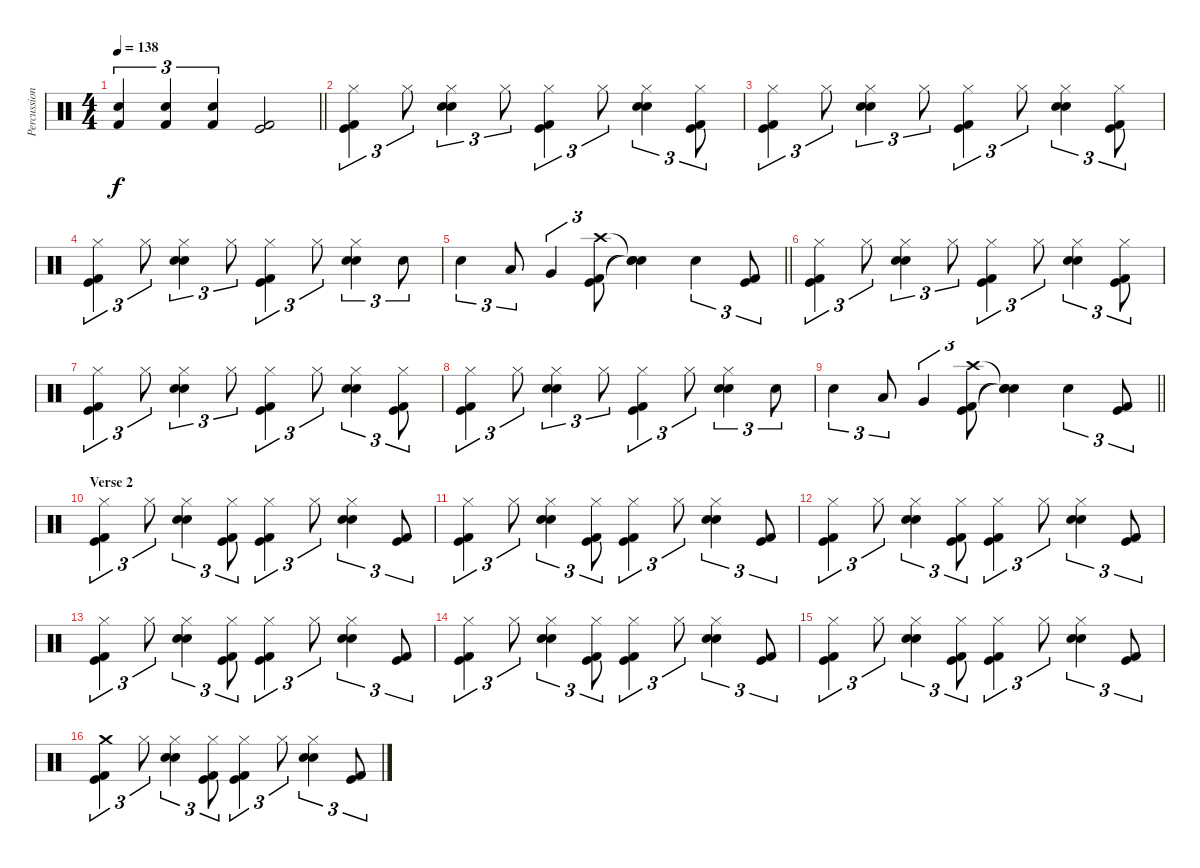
\track ("Percussion" "Percussion") {instrument percussion}
\staff {score}
\articulation defaults
\ts (4 4)
\tempo 138
\clef neutral
\barLineRight lightlight
\ks c
("Electric Snare (hit)" "Kick (hit) 2").4{tu (3 2) dy f} ("Electric Snare (hit)" "Kick (hit) 2").4{tu (3 2)} ("Electric Snare (hit)" "Kick (hit) 2").4{tu (3 2)} ("Kick (hit)" "Kick (hit) 2").2 |
\section ("" "")
("Hi-Hat (closed)" "Kick (hit)" "Kick (hit) 2").4{tu (3 2)} "Hi-Hat (closed)".8{tu (3 2)} ("Hi-Hat (closed)" "Hand Clap (hit)" "Electric Snare (hit)").4{tu (3 2)} "Hi-Hat (closed)".8{tu (3 2)} ("Hi-Hat (closed)" "Kick (hit)" "Kick (hit) 2").4{tu (3 2)} "Hi-Hat (closed)".8{tu (3 2)} ("Hi-Hat (closed)" "Hand Clap (hit)" "Electric Snare (hit)").4{tu (3 2)} ("Hi-Hat (closed)" "Kick (hit)" "Kick (hit) 2").8{tu (3 2)} |
("Hi-Hat (closed)" "Kick (hit)" "Kick (hit) 2").4{tu (3 2)} "Hi-Hat (closed)".8{tu (3 2)} ("Hi-Hat (closed)" "Hand Clap (hit)" "Electric Snare (hit)").4{tu (3 2)} "Hi-Hat (closed)".8{tu (3 2)} ("Hi-Hat (closed)" "Kick (hit)" "Kick (hit) 2").4{tu (3 2)} "Hi-Hat (closed)".8{tu (3 2)} ("Hi-Hat (closed)" "Hand Clap (hit)" "Electric Snare (hit)").4{tu (3 2)} ("Hi-Hat (closed)" "Kick (hit)" "Kick (hit) 2").8{tu (3 2)} |
("Hi-Hat (closed)" "Kick (hit)" "Kick (hit) 2").4{tu (3 2)} "Hi-Hat (closed)".8{tu (3 2)} ("Hi-Hat (closed)" "Hand Clap (hit)" "Electric Snare (hit)").4{tu (3 2)} "Hi-Hat (closed)".8{tu (3 2)} ("Hi-Hat (closed)" "Kick (hit)" "Kick (hit) 2").4{tu (3 2)} "Hi-Hat (closed)".8{tu (3 2)} ("Hi-Hat (closed)" "Hand Clap (hit)" "Electric Snare (hit)").4{tu (3 2)} "Electric Snare (hit)".8{tu (3 2)} |
\barLineRight lightlight "Electric Snare (hit)".4{tu (3 2)} "Low Tom (hit)".8{tu (3 2)} "Very Low Tom (hit)".4{tu (3 2)}
("Crash high (hit)" "Kick (hit)" "Kick (hit) 2").8{tu (3 2)} ("Snare (hit)"{t} "Snare (hit)"{t} "Snare (hit)"{t}).4 "Hand Clap (hit)".4{tu (3 2)} ("Kick (hit)" "Kick (hit) 2").8{tu (3 2)} |
\section ("" "")
("Hi-Hat (closed)" "Kick (hit)" "Kick (hit) 2").4{tu (3 2)} "Hi-Hat (closed)".8{tu (3 2)} ("Hi-Hat (closed)" "Hand Clap (hit)" "Electric Snare (hit)").4{tu (3 2)} "Hi-Hat (closed)".8{tu (3 2)} ("Hi-Hat (closed)" "Kick (hit)" "Kick (hit) 2").4{tu (3 2)} "Hi-Hat (closed)".8{tu (3 2)} ("Hi-Hat (closed)" "Hand Clap (hit)" "Electric Snare (hit)").4{tu (3 2)} ("Hi-Hat (closed)" "Kick (hit)" "Kick (hit) 2").8{tu (3 2)} |
("Hi-Hat (closed)" "Kick (hit)" "Kick (hit) 2").4{tu (3 2)} "Hi-Hat (closed)".8{tu (3 2)} ("Hi-Hat (closed)" "Hand Clap (hit)" "Electric Snare (hit)").4{tu (3 2)} "Hi-Hat (closed)".8{tu (3 2)} ("Hi-Hat (closed)" "Kick (hit)" "Kick (hit) 2").4{tu (3 2)} "Hi-Hat (closed)".8{tu (3 2)} ("Hi-Hat (closed)" "Hand Clap (hit)" "Electric Snare (hit)").4{tu (3 2)} ("Hi-Hat (closed)" "Kick (hit)" "Kick (hit) 2").8{tu (3 2)} |
("Hi-Hat (closed)" "Kick (hit)" "Kick (hit) 2").4{tu (3 2)} "Hi-Hat (closed)".8{tu (3 2)} ("Hi-Hat (closed)" "Hand Clap (hit)" "Electric Snare (hit)").4{tu (3 2)} "Hi-Hat (closed)".8{tu (3 2)} ("Hi-Hat (closed)" "Kick (hit)" "Kick (hit) 2").4{tu (3 2)} "Hi-Hat (closed)".8{tu (3 2)} ("Hi-Hat (closed)" "Hand Clap (hit)" "Electric Snare (hit)").4{tu (3 2)} "Electric Snare (hit)".8{tu (3 2)} |
\barLineRight lightlight "Electric Snare (hit)".4{tu (3 2)} "Low Tom (hit)".8{tu (3 2)} "Very Low Tom (hit)".4{tu (3 2)}
("Crash high (hit)" "Kick (hit)" "Kick (hit) 2").8{tu (3 2)} ("Snare (hit)"{t} "Snare (hit)"{t} "Snare (hit)"{t}).4 "Hand Clap (hit)".4{tu (3 2)} ("Kick (hit)" "Kick (hit) 2").8{tu (3 2)} |
\section ("" "Verse 2")
("Hi-Hat (closed)" "Kick (hit)" "Kick (hit) 2").4{tu (3 2)} "Hi-Hat (closed)".8{tu (3 2)} ("Hi-Hat (closed)" "Hand Clap (hit)" "Electric Snare (hit)").4{tu (3 2)} ("Hi-Hat (closed)" "Kick (hit)" "Kick (hit) 2").8{tu (3 2)} ("Hi-Hat (closed)" "Kick (hit)" "Kick (hit) 2").4{tu (3 2)} "Hi-Hat (closed)".8{tu (3 2)} ("Hi-Hat (closed)" "Hand Clap (hit)" "Electric Snare (hit)").4{tu (3 2)} ("Kick (hit)" "Kick (hit) 2").8{tu (3 2)} |
("Hi-Hat (closed)" "Kick (hit)" "Kick (hit) 2").4{tu (3 2)} "Hi-Hat (closed)".8{tu (3 2)} ("Hi-Hat (closed)" "Hand Clap (hit)" "Electric Snare (hit)").4{tu (3 2)} ("Hi-Hat (closed)" "Kick (hit)" "Kick (hit) 2").8{tu (3 2)} ("Hi-Hat (closed)" "Kick (hit)" "Kick (hit) 2").4{tu (3 2)} "Hi-Hat (closed)".8{tu (3 2)} ("Hi-Hat (closed)" "Hand Clap (hit)" "Electric Snare (hit)").4{tu (3 2)} ("Kick (hit)" "Kick (hit) 2").8{tu (3 2)} |
("Hi-Hat (closed)" "Kick (hit)" "Kick (hit) 2").4{tu (3 2)} "Hi-Hat (closed)".8{tu (3 2)} ("Hi-Hat (closed)" "Hand Clap (hit)" "Electric Snare (hit)").4{tu (3 2)} ("Hi-Hat (closed)" "Kick (hit)" "Kick (hit) 2").8{tu (3 2)} ("Hi-Hat (closed)" "Kick (hit)" "Kick (hit) 2").4{tu (3 2)} "Hi-Hat (closed)".8{tu (3 2)} ("Hi-Hat (closed)" "Hand Clap (hit)" "Electric Snare (hit)").4{tu (3 2)} ("Kick (hit)" "Kick (hit) 2").8{tu (3 2)} |
("Hi-Hat (closed)" "Kick (hit)" "Kick (hit) 2").4{tu (3 2)} "Hi-Hat (closed)".8{tu (3 2)} ("Hi-Hat (closed)" "Hand Clap (hit)" "Electric Snare (hit)").4{tu (3 2)} ("Hi-Hat (closed)" "Kick (hit)" "Kick (hit) 2").8{tu (3 2)} ("Hi-Hat (closed)" "Kick (hit)" "Kick (hit) 2").4{tu (3 2)} "Hi-Hat (closed)".8{tu (3 2)} ("Hi-Hat (closed)" "Hand Clap (hit)" "Electric Snare (hit)").4{tu (3 2)} ("Kick (hit)" "Kick (hit) 2").8{tu (3 2)} |
("Hi-Hat (closed)" "Kick (hit)" "Kick (hit) 2").4{tu (3 2)} "Hi-Hat (closed)".8{tu (3 2)} ("Hi-Hat (closed)" "Hand Clap (hit)" "Electric Snare (hit)").4{tu (3 2)} ("Hi-Hat (closed)" "Kick (hit)" "Kick (hit) 2").8{tu (3 2)} ("Hi-Hat (closed)" "Kick (hit)" "Kick (hit) 2").4{tu (3 2)} "Hi-Hat (closed)".8{tu (3 2)} ("Hi-Hat (closed)" "Hand Clap (hit)" "Electric Snare (hit)").4{tu (3 2)} ("Kick (hit)" "Kick (hit) 2").8{tu (3 2)} |
("Hi-Hat (closed)" "Kick (hit)" "Kick (hit) 2").4{tu (3 2)} "Hi-Hat (closed)".8{tu (3 2)} ("Hi-Hat (closed)" "Hand Clap (hit)" "Electric Snare (hit)").4{tu (3 2)} ("Hi-Hat (closed)" "Kick (hit)" "Kick (hit) 2").8{tu (3 2)} ("Hi-Hat (closed)" "Kick (hit)" "Kick (hit) 2").4{tu (3 2)} "Hi-Hat (closed)".8{tu (3 2)} ("Hi-Hat (closed)" "Hand Clap (hit)" "Electric Snare (hit)").4{tu (3 2)} ("Kick (hit)" "Kick (hit) 2").8{tu (3 2)} |
("Crash medium (hit)" "Kick (hit)" "Kick (hit) 2").4{tu (3 2)} "Hi-Hat (closed)".8{tu (3 2)} ("Hi-Hat (closed)" "Hand Clap (hit)" "Electric Snare (hit)").4{tu (3 2)} ("Hi-Hat (closed)" "Kick (hit)" "Kick (hit) 2").8{tu (3 2)} ("Hi-Hat (closed)" "Kick (hit)" "Kick (hit) 2").4{tu (3 2)} "Hi-Hat (closed)".8{tu (3 2)} ("Hi-Hat (closed)" "Hand Clap (hit)" "Electric Snare (hit)").4{tu (3 2)} ("Kick (hit)" "Kick (hit) 2").8{tu (3 2)}
